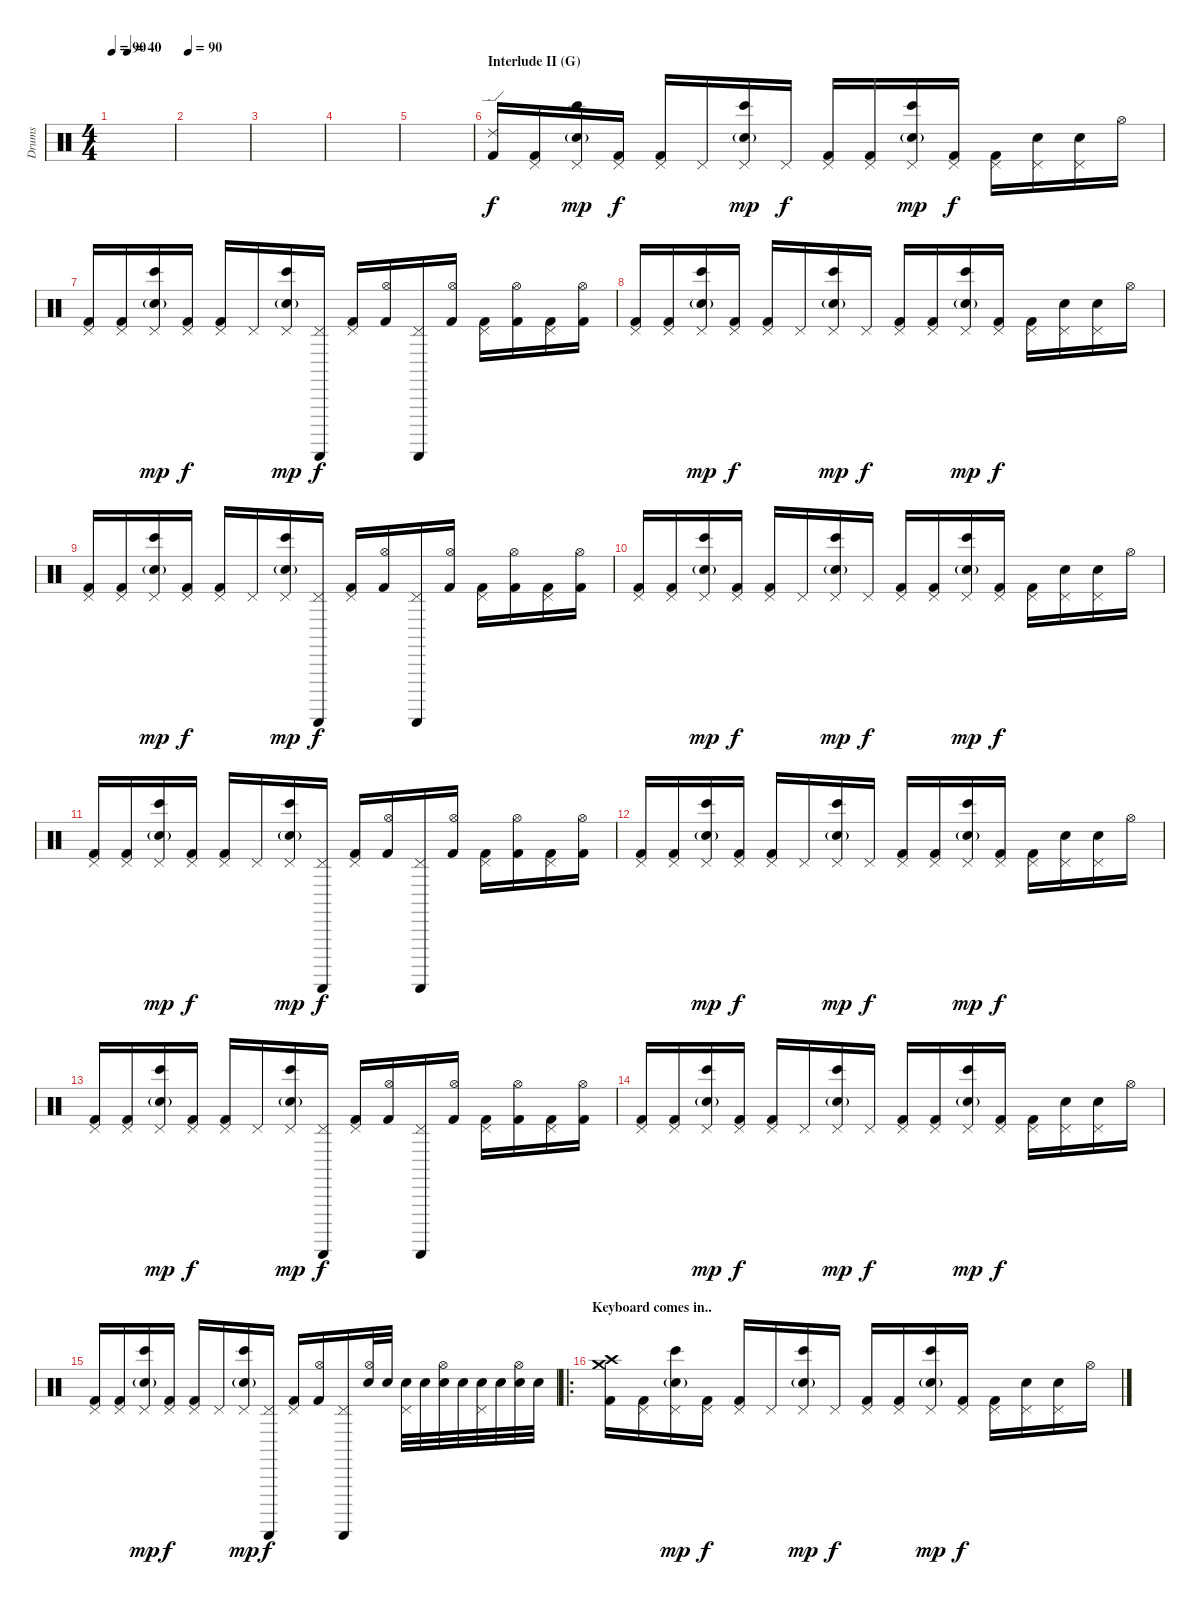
\track ("Drums" "Drums") {instrument percussion}
\staff {score}
\articulation defaults
\ts (4 4)
\tempo 90
\tempo (40 0.25)
\clef neutral
\ks c
|
\tempo 90
|
|
|
|
\section ("" "Interlude II (G)")
("Ride (edge) 2" "Kick (hit) 2").16{volume 13} ("Pedal Hi-Hat (hit)" "Kick (hit) 2").16 ("Pedal Hi-Hat (hit)" "Bongo High (hit)" "Electric Snare (hit)"{g}).16{dy mp} ("Pedal Hi-Hat (hit)" "Kick (hit) 2").16{dy f} ("Pedal Hi-Hat (hit)" "Kick (hit) 2").16 "Pedal Hi-Hat (hit)".16 ("Pedal Hi-Hat (hit)" "Bongo High (hit)" "Electric Snare (hit)"{g}).16{dy mp} "Pedal Hi-Hat (hit)".16{dy f} ("Pedal Hi-Hat (hit)" "Kick (hit) 2").16 ("Pedal Hi-Hat (hit)" "Kick (hit) 2").16 ("Pedal Hi-Hat (hit)" "Bongo High (hit)" "Electric Snare (hit)"{g}).16{dy mp} ("Pedal Hi-Hat (hit)" "Kick (hit) 2").16{dy f} ("Pedal Hi-Hat (hit)" "Kick (hit) 2").16 ("Pedal Hi-Hat (hit)" "Electric Snare (hit)").16 ("Pedal Hi-Hat (hit)" "Electric Snare (hit)").16 "Hi-Hat (open)".16 |
("Pedal Hi-Hat (hit)" "Kick (hit) 2").16 ("Pedal Hi-Hat (hit)" "Kick (hit) 2").16 ("Pedal Hi-Hat (hit)" "Bongo High (hit)" "Electric Snare (hit)"{g}).16{dy mp} ("Pedal Hi-Hat (hit)" "Kick (hit) 2").16{dy f} ("Pedal Hi-Hat (hit)" "Kick (hit) 2").16 "Pedal Hi-Hat (hit)".16 ("Pedal Hi-Hat (hit)" "Bongo High (hit)" "Electric Snare (hit)"{g}).16{dy mp} ("Pedal Hi-Hat (hit)" "Guiro (scrap-return)").16{dy f} ("Pedal Hi-Hat (hit)" "Kick (hit) 2").16 ("Hi-Hat (open)" "Kick (hit) 2").16 ("Pedal Hi-Hat (hit)" "Guiro (scrap-return)").16 ("Hi-Hat (open)" "Kick (hit) 2").16 ("Pedal Hi-Hat (hit)" "Kick (hit) 2").16 ("Hi-Hat (open)" "Kick (hit) 2").16 ("Pedal Hi-Hat (hit)" "Kick (hit) 2").16 ("Hi-Hat (open)" "Kick (hit) 2").16 |
("Pedal Hi-Hat (hit)" "Kick (hit) 2").16 ("Pedal Hi-Hat (hit)" "Kick (hit) 2").16 ("Pedal Hi-Hat (hit)" "Bongo High (hit)" "Electric Snare (hit)"{g}).16{dy mp} ("Pedal Hi-Hat (hit)" "Kick (hit) 2").16{dy f} ("Pedal Hi-Hat (hit)" "Kick (hit) 2").16 "Pedal Hi-Hat (hit)".16 ("Pedal Hi-Hat (hit)" "Bongo High (hit)" "Electric Snare (hit)"{g}).16{dy mp} "Pedal Hi-Hat (hit)".16{dy f} ("Pedal Hi-Hat (hit)" "Kick (hit) 2").16 ("Pedal Hi-Hat (hit)" "Kick (hit) 2").16 ("Pedal Hi-Hat (hit)" "Bongo High (hit)" "Electric Snare (hit)"{g}).16{dy mp} ("Pedal Hi-Hat (hit)" "Kick (hit) 2").16{dy f} ("Pedal Hi-Hat (hit)" "Kick (hit) 2").16 ("Pedal Hi-Hat (hit)" "Electric Snare (hit)").16 ("Pedal Hi-Hat (hit)" "Electric Snare (hit)").16 "Hi-Hat (open)".16 |
("Pedal Hi-Hat (hit)" "Kick (hit) 2").16 ("Pedal Hi-Hat (hit)" "Kick (hit) 2").16 ("Pedal Hi-Hat (hit)" "Bongo High (hit)" "Electric Snare (hit)"{g}).16{dy mp} ("Pedal Hi-Hat (hit)" "Kick (hit) 2").16{dy f} ("Pedal Hi-Hat (hit)" "Kick (hit) 2").16 "Pedal Hi-Hat (hit)".16 ("Pedal Hi-Hat (hit)" "Bongo High (hit)" "Electric Snare (hit)"{g}).16{dy mp} ("Pedal Hi-Hat (hit)" "Guiro (scrap-return)").16{dy f} ("Pedal Hi-Hat (hit)" "Kick (hit) 2").16 ("Hi-Hat (open)" "Kick (hit) 2").16 ("Pedal Hi-Hat (hit)" "Guiro (scrap-return)").16 ("Hi-Hat (open)" "Kick (hit) 2").16 ("Pedal Hi-Hat (hit)" "Kick (hit) 2").16 ("Hi-Hat (open)" "Kick (hit) 2").16 ("Pedal Hi-Hat (hit)" "Kick (hit) 2").16 ("Hi-Hat (open)" "Kick (hit) 2").16 |
("Pedal Hi-Hat (hit)" "Kick (hit) 2").16 ("Pedal Hi-Hat (hit)" "Kick (hit) 2").16 ("Pedal Hi-Hat (hit)" "Bongo High (hit)" "Electric Snare (hit)"{g}).16{dy mp} ("Pedal Hi-Hat (hit)" "Kick (hit) 2").16{dy f} ("Pedal Hi-Hat (hit)" "Kick (hit) 2").16 "Pedal Hi-Hat (hit)".16 ("Pedal Hi-Hat (hit)" "Bongo High (hit)" "Electric Snare (hit)"{g}).16{dy mp} "Pedal Hi-Hat (hit)".16{dy f} ("Pedal Hi-Hat (hit)" "Kick (hit) 2").16 ("Pedal Hi-Hat (hit)" "Kick (hit) 2").16 ("Pedal Hi-Hat (hit)" "Bongo High (hit)" "Electric Snare (hit)"{g}).16{dy mp} ("Pedal Hi-Hat (hit)" "Kick (hit) 2").16{dy f} ("Pedal Hi-Hat (hit)" "Kick (hit) 2").16 ("Pedal Hi-Hat (hit)" "Electric Snare (hit)").16 ("Pedal Hi-Hat (hit)" "Electric Snare (hit)").16 "Hi-Hat (open)".16 |
("Pedal Hi-Hat (hit)" "Kick (hit) 2").16 ("Pedal Hi-Hat (hit)" "Kick (hit) 2").16 ("Pedal Hi-Hat (hit)" "Bongo High (hit)" "Electric Snare (hit)"{g}).16{dy mp} ("Pedal Hi-Hat (hit)" "Kick (hit) 2").16{dy f} ("Pedal Hi-Hat (hit)" "Kick (hit) 2").16 "Pedal Hi-Hat (hit)".16 ("Pedal Hi-Hat (hit)" "Bongo High (hit)" "Electric Snare (hit)"{g}).16{dy mp} ("Pedal Hi-Hat (hit)" "Guiro (scrap-return)").16{dy f} ("Pedal Hi-Hat (hit)" "Kick (hit) 2").16 ("Hi-Hat (open)" "Kick (hit) 2").16 ("Pedal Hi-Hat (hit)" "Guiro (scrap-return)").16 ("Hi-Hat (open)" "Kick (hit) 2").16 ("Pedal Hi-Hat (hit)" "Kick (hit) 2").16 ("Hi-Hat (open)" "Kick (hit) 2").16 ("Pedal Hi-Hat (hit)" "Kick (hit) 2").16 ("Hi-Hat (open)" "Kick (hit) 2").16 |
("Pedal Hi-Hat (hit)" "Kick (hit) 2").16 ("Pedal Hi-Hat (hit)" "Kick (hit) 2").16 ("Pedal Hi-Hat (hit)" "Bongo High (hit)" "Electric Snare (hit)"{g}).16{dy mp} ("Pedal Hi-Hat (hit)" "Kick (hit) 2").16{dy f} ("Pedal Hi-Hat (hit)" "Kick (hit) 2").16 "Pedal Hi-Hat (hit)".16 ("Pedal Hi-Hat (hit)" "Bongo High (hit)" "Electric Snare (hit)"{g}).16{dy mp} "Pedal Hi-Hat (hit)".16{dy f} ("Pedal Hi-Hat (hit)" "Kick (hit) 2").16 ("Pedal Hi-Hat (hit)" "Kick (hit) 2").16 ("Pedal Hi-Hat (hit)" "Bongo High (hit)" "Electric Snare (hit)"{g}).16{dy mp} ("Pedal Hi-Hat (hit)" "Kick (hit) 2").16{dy f} ("Pedal Hi-Hat (hit)" "Kick (hit) 2").16 ("Pedal Hi-Hat (hit)" "Electric Snare (hit)").16 ("Pedal Hi-Hat (hit)" "Electric Snare (hit)").16 "Hi-Hat (open)".16 |
("Pedal Hi-Hat (hit)" "Kick (hit) 2").16 ("Pedal Hi-Hat (hit)" "Kick (hit) 2").16 ("Pedal Hi-Hat (hit)" "Bongo High (hit)" "Electric Snare (hit)"{g}).16{dy mp} ("Pedal Hi-Hat (hit)" "Kick (hit) 2").16{dy f} ("Pedal Hi-Hat (hit)" "Kick (hit) 2").16 "Pedal Hi-Hat (hit)".16 ("Pedal Hi-Hat (hit)" "Bongo High (hit)" "Electric Snare (hit)"{g}).16{dy mp} ("Pedal Hi-Hat (hit)" "Guiro (scrap-return)").16{dy f} ("Pedal Hi-Hat (hit)" "Kick (hit) 2").16 ("Hi-Hat (open)" "Kick (hit) 2").16 ("Pedal Hi-Hat (hit)" "Guiro (scrap-return)").16 ("Hi-Hat (open)" "Kick (hit) 2").16 ("Pedal Hi-Hat (hit)" "Kick (hit) 2").16 ("Hi-Hat (open)" "Kick (hit) 2").16 ("Pedal Hi-Hat (hit)" "Kick (hit) 2").16 ("Hi-Hat (open)" "Kick (hit) 2").16 |
("Pedal Hi-Hat (hit)" "Kick (hit) 2").16 ("Pedal Hi-Hat (hit)" "Kick (hit) 2").16 ("Pedal Hi-Hat (hit)" "Bongo High (hit)" "Electric Snare (hit)"{g}).16{dy mp} ("Pedal Hi-Hat (hit)" "Kick (hit) 2").16{dy f} ("Pedal Hi-Hat (hit)" "Kick (hit) 2").16 "Pedal Hi-Hat (hit)".16 ("Pedal Hi-Hat (hit)" "Bongo High (hit)" "Electric Snare (hit)"{g}).16{dy mp} "Pedal Hi-Hat (hit)".16{dy f} ("Pedal Hi-Hat (hit)" "Kick (hit) 2").16 ("Pedal Hi-Hat (hit)" "Kick (hit) 2").16 ("Pedal Hi-Hat (hit)" "Bongo High (hit)" "Electric Snare (hit)"{g}).16{dy mp} ("Pedal Hi-Hat (hit)" "Kick (hit) 2").16{dy f} ("Pedal Hi-Hat (hit)" "Kick (hit) 2").16 ("Pedal Hi-Hat (hit)" "Electric Snare (hit)").16 ("Pedal Hi-Hat (hit)" "Electric Snare (hit)").16 "Hi-Hat (open)".16 |
("Pedal Hi-Hat (hit)" "Kick (hit) 2").16 ("Pedal Hi-Hat (hit)" "Kick (hit) 2").16 ("Pedal Hi-Hat (hit)" "Bongo High (hit)" "Electric Snare (hit)"{g}).16{dy mp} ("Pedal Hi-Hat (hit)" "Kick (hit) 2").16{dy f} ("Pedal Hi-Hat (hit)" "Kick (hit) 2").16 "Pedal Hi-Hat (hit)".16 ("Pedal Hi-Hat (hit)" "Bongo High (hit)" "Electric Snare (hit)"{g}).16{dy mp} ("Pedal Hi-Hat (hit)" "Guiro (scrap-return)").16{dy f} ("Pedal Hi-Hat (hit)" "Kick (hit) 2").16 ("Hi-Hat (open)" "Kick (hit) 2").16 ("Pedal Hi-Hat (hit)" "Guiro (scrap-return)").16 ("Hi-Hat (open)" "Electric Snare (hit)").32 "Electric Snare (hit)".32 ("Pedal Hi-Hat (hit)" "Electric Snare (hit)").32 "Electric Snare (hit)".32 ("Hi-Hat (open)" "Electric Snare (hit)").32 "Electric Snare (hit)".32 ("Pedal Hi-Hat (hit)" "Electric Snare (hit)").32 "Electric Snare (hit)".32 ("Hi-Hat (open)" "Electric Snare (hit)").32 "Electric Snare (hit)".32 |
\ro
\section ("" "Keyboard comes in..")
("Crash high (hit)" "Crash medium (hit)" "Kick (hit) 2").16 ("Pedal Hi-Hat (hit)" "Kick (hit) 2").16 ("Pedal Hi-Hat (hit)" "Bongo High (hit)" "Electric Snare (hit)"{g}).16{dy mp} ("Pedal Hi-Hat (hit)" "Kick (hit) 2").16{dy f} ("Pedal Hi-Hat (hit)" "Kick (hit) 2").16 "Pedal Hi-Hat (hit)".16 ("Pedal Hi-Hat (hit)" "Bongo High (hit)" "Electric Snare (hit)"{g}).16{dy mp} "Pedal Hi-Hat (hit)".16{dy f} ("Pedal Hi-Hat (hit)" "Kick (hit) 2").16 ("Pedal Hi-Hat (hit)" "Kick (hit) 2").16 ("Pedal Hi-Hat (hit)" "Bongo High (hit)" "Electric Snare (hit)"{g}).16{dy mp} ("Pedal Hi-Hat (hit)" "Kick (hit) 2").16{dy f} ("Pedal Hi-Hat (hit)" "Kick (hit) 2").16 ("Pedal Hi-Hat (hit)" "Electric Snare (hit)").16 ("Pedal Hi-Hat (hit)" "Electric Snare (hit)").16 "Hi-Hat (open)".16
